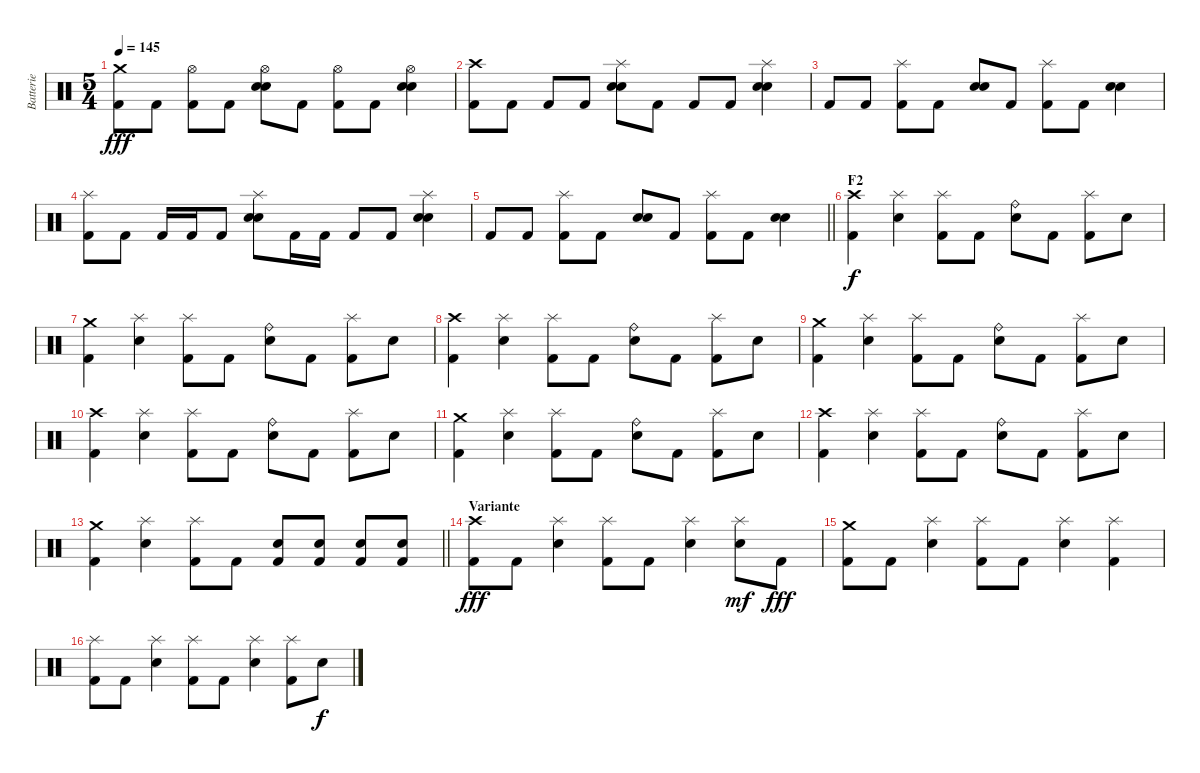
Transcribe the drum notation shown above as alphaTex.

\track ("Batterie" "Batterie") {instrument percussion}
\staff {score}
\articulation defaults
\ts (5 4)
\tempo 145
\clef neutral
\ks c
("Crash medium (hit)" "Kick (hit) 2").8{dy fff} "Kick (hit) 2".8 ("Hi-Hat (open)" "Kick (hit) 2").8 "Kick (hit) 2".8 ("Hi-Hat (open)" "Electric Snare (hit)" "Electric Snare (hit)").8 "Kick (hit) 2".8 ("Hi-Hat (open)" "Kick (hit) 2").8 "Kick (hit) 2".8 ("Hi-Hat (open)" "Electric Snare (hit)" "Electric Snare (hit)").4 |
("Crash high (hit)" "Kick (hit) 2").8 "Kick (hit) 2".8 "Kick (hit) 2".8 "Kick (hit) 2".8 ("Splash (hit)" "Electric Snare (hit)" "Electric Snare (hit)").8 "Kick (hit) 2".8 "Kick (hit) 2".8 "Kick (hit) 2".8 ("Splash (hit)" "Electric Snare (hit)" "Electric Snare (hit)").4 |
"Kick (hit) 2".8 "Kick (hit) 2".8 ("Splash (hit)" "Kick (hit) 2").8 "Kick (hit) 2".8 ("Electric Snare (hit)" "Electric Snare (hit)").8 "Kick (hit) 2".8 ("Splash (hit)" "Kick (hit) 2").8 "Kick (hit) 2".8 ("Electric Snare (hit)" "Electric Snare (hit)").4 |
("Splash (hit)" "Kick (hit) 2").8 "Kick (hit) 2".8 "Kick (hit) 2".16 "Kick (hit) 2".16 "Kick (hit) 2".8 ("Splash (hit)" "Electric Snare (hit)" "Electric Snare (hit)").8 "Kick (hit) 2".16 "Kick (hit) 2".16 "Kick (hit) 2".8 "Kick (hit) 2".8 ("Splash (hit)" "Electric Snare (hit)" "Electric Snare (hit)").4 |
\barLineRight lightlight "Kick (hit) 2".8 "Kick (hit) 2".8
("Splash (hit)" "Kick (hit) 2").8 "Kick (hit) 2".8 ("Electric Snare (hit)" "Electric Snare (hit)").8 "Kick (hit) 2".8 ("Splash (hit)" "Kick (hit) 2").8 "Kick (hit) 2".8 ("Electric Snare (hit)" "Electric Snare (hit)").4 |
\section ("" "F2")
("Crash high (hit)" "Kick (hit) 2").4{dy f} ("Splash (hit)" "Electric Snare (hit)").4 ("Splash (hit)" "Kick (hit) 2").8 "Kick (hit) 2".8 ("Ride (bell)" "Electric Snare (hit)").8 "Kick (hit) 2".8 ("Splash (hit)" "Kick (hit) 2").8 "Electric Snare (hit)".8 |
("Crash medium (hit)" "Kick (hit) 2").4 ("Splash (hit)" "Electric Snare (hit)").4 ("Splash (hit)" "Kick (hit) 2").8 "Kick (hit) 2".8 ("Ride (bell)" "Electric Snare (hit)").8 "Kick (hit) 2".8 ("Splash (hit)" "Kick (hit) 2").8 "Electric Snare (hit)".8 |
("Crash high (hit)" "Kick (hit) 2").4 ("Splash (hit)" "Electric Snare (hit)").4 ("Splash (hit)" "Kick (hit) 2").8 "Kick (hit) 2".8 ("Ride (bell)" "Electric Snare (hit)").8 "Kick (hit) 2".8 ("Splash (hit)" "Kick (hit) 2").8 "Electric Snare (hit)".8 |
("Crash medium (hit)" "Kick (hit) 2").4 ("Splash (hit)" "Electric Snare (hit)").4 ("Splash (hit)" "Kick (hit) 2").8 "Kick (hit) 2".8 ("Ride (bell)" "Electric Snare (hit)").8 "Kick (hit) 2".8 ("Splash (hit)" "Kick (hit) 2").8 "Electric Snare (hit)".8 |
("Crash high (hit)" "Kick (hit) 2").4 ("Splash (hit)" "Electric Snare (hit)").4 ("Splash (hit)" "Kick (hit) 2").8 "Kick (hit) 2".8 ("Ride (bell)" "Electric Snare (hit)").8 "Kick (hit) 2".8 ("Splash (hit)" "Kick (hit) 2").8 "Electric Snare (hit)".8 |
("Crash medium (hit)" "Kick (hit) 2").4 ("Splash (hit)" "Electric Snare (hit)").4 ("Splash (hit)" "Kick (hit) 2").8 "Kick (hit) 2".8 ("Ride (bell)" "Electric Snare (hit)").8 "Kick (hit) 2".8 ("Splash (hit)" "Kick (hit) 2").8 "Electric Snare (hit)".8 |
("Crash high (hit)" "Kick (hit) 2").4 ("Splash (hit)" "Electric Snare (hit)").4 ("Splash (hit)" "Kick (hit) 2").8 "Kick (hit) 2".8 ("Ride (bell)" "Electric Snare (hit)").8 "Kick (hit) 2".8 ("Splash (hit)" "Kick (hit) 2").8 "Electric Snare (hit)".8 |
\barLineRight lightlight
("Crash medium (hit)" "Kick (hit) 2").4 ("Splash (hit)" "Electric Snare (hit)").4 ("Splash (hit)" "Kick (hit) 2").8 "Kick (hit) 2".8 ("Electric Snare (hit)" "Kick (hit) 2").8 ("Electric Snare (hit)" "Kick (hit) 2").8 ("Electric Snare (hit)" "Kick (hit) 2").8 ("Electric Snare (hit)" "Kick (hit) 2").8 |
\section ("" "Variante")
("Crash high (hit)" "Kick (hit) 2").8{dy fff} "Kick (hit) 2".8 ("Splash (hit)" "Electric Snare (hit)").4 ("Splash (hit)" "Kick (hit) 2").8 "Kick (hit) 2".8 ("Splash (hit)" "Electric Snare (hit)").4 ("Splash (hit)" "Electric Snare (hit)").8{dy mf} "Kick (hit) 2".8{dy fff} |
("Crash medium (hit)" "Kick (hit) 2").8 "Kick (hit) 2".8 ("Splash (hit)" "Electric Snare (hit)").4 ("Splash (hit)" "Kick (hit) 2").8 "Kick (hit) 2".8 ("Splash (hit)" "Electric Snare (hit)").4 ("Splash (hit)" "Kick (hit) 2").4 |
("Splash (hit)" "Kick (hit) 2").8 "Kick (hit) 2".8 ("Splash (hit)" "Electric Snare (hit)").4 ("Splash (hit)" "Kick (hit) 2").8 "Kick (hit) 2".8 ("Splash (hit)" "Electric Snare (hit)").4 ("Splash (hit)" "Kick (hit) 2").8 "Electric Snare (hit)".8{dy f}
